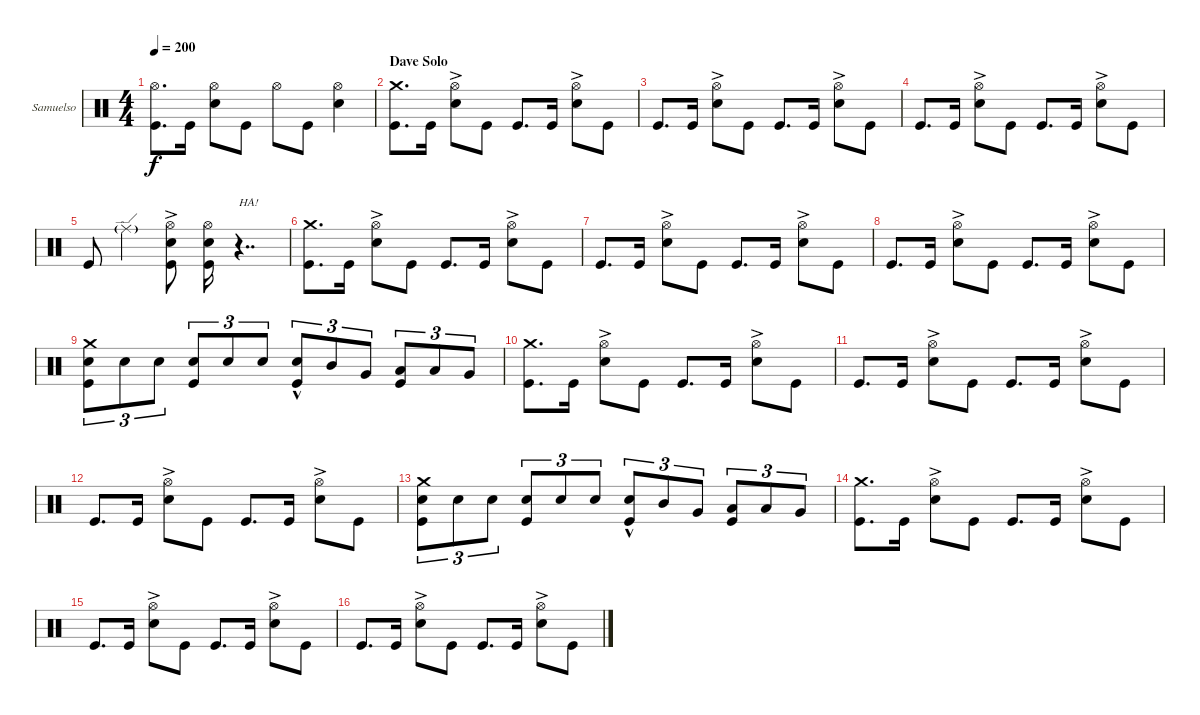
\bracketExtendMode groupsimilarinstruments
\firstSystemTrackNameOrientation horizontal
\otherSystemsTrackNameOrientation horizontal
\track ("Gar Samuelson" "Samuelso") {instrument percussion}
\staff {score}
\articulation defaults
\ts (4 4)
\tempo 200
\clef neutral
\ks c
("Hi-Hat (open)" "Kick (hit)").8{d dy f} "Kick (hit)".16 ("Snare (hit) 2" "Hi-Hat (open)").8 "Kick (hit)".8 "Hi-Hat (open)".8 "Kick (hit)".8 ("Snare (hit) 2" "Hi-Hat (open)").4 |
\section ("" "Dave Solo")
("Kick (hit)" "Crash medium (hit)").8{d} "Kick (hit)".16 ("Snare (hit) 2" "Hi-Hat (open)"{ac}).8 "Kick (hit)".8 "Kick (hit)".8{d} "Kick (hit)".16 ("Snare (hit) 2" "Hi-Hat (open)"{ac}).8 "Kick (hit)".8 |
"Kick (hit)".8{d} "Kick (hit)".16 ("Snare (hit) 2" "Hi-Hat (open)"{ac}).8 "Kick (hit)".8 "Kick (hit)".8{d} "Kick (hit)".16 ("Snare (hit) 2" "Hi-Hat (open)"{ac}).8 "Kick (hit)".8 |
"Kick (hit)".8{d} "Kick (hit)".16 ("Snare (hit) 2" "Hi-Hat (open)"{ac}).8 "Kick (hit)".8 "Kick (hit)".8{d} "Kick (hit)".16 ("Snare (hit) 2" "Hi-Hat (open)"{ac}).8 "Kick (hit)".8 |
"Kick (hit)".8 "Ride (edge)"{g}.4 ("Snare (hit) 2"{ac} "Kick (hit)"{ac} "Hi-Hat (open)"{ac}).8 ("Kick (hit)" "Snare (hit) 2" "Hi-Hat (open)").16 r.4{dd txt "HA!"} |
("Kick (hit)" "Crash medium (hit)").8{d} "Kick (hit)".16 ("Snare (hit) 2" "Hi-Hat (open)"{ac}).8 "Kick (hit)".8 "Kick (hit)".8{d} "Kick (hit)".16 ("Snare (hit) 2" "Hi-Hat (open)"{ac}).8 "Kick (hit)".8 |
"Kick (hit)".8{d} "Kick (hit)".16 ("Snare (hit) 2" "Hi-Hat (open)"{ac}).8 "Kick (hit)".8 "Kick (hit)".8{d} "Kick (hit)".16 ("Snare (hit) 2" "Hi-Hat (open)"{ac}).8 "Kick (hit)".8 |
"Kick (hit)".8{d} "Kick (hit)".16 ("Snare (hit) 2" "Hi-Hat (open)"{ac}).8 "Kick (hit)".8 "Kick (hit)".8{d} "Kick (hit)".16 ("Snare (hit) 2" "Hi-Hat (open)"{ac}).8 "Kick (hit)".8 |
("Snare (hit) 2" "Crash medium (hit)" "Kick (hit)").8{tu (3 2)} "Snare (hit) 2".8{tu (3 2)} "Snare (hit) 2".8{tu (3 2)} ("Snare (hit) 2" "Kick (hit)").8{tu (3 2)} "Snare (hit) 2".8{tu (3 2)} "Snare (hit) 2".8{tu (3 2)} ("Snare (hit) 2"{hac} "Kick (hit)").8{tu (3 2)} "Mid Tom (hit)".8{tu (3 2)} "Very Low Tom (hit)".8{tu (3 2)} ("Low Tom (hit)" "Kick (hit)").8{tu (3 2)} "Low Tom (hit)".8{tu (3 2)} "Very Low Tom (hit)".8{tu (3 2)} |
("Kick (hit)" "Crash medium (hit)").8{d} "Kick (hit)".16 ("Snare (hit) 2" "Hi-Hat (open)"{ac}).8 "Kick (hit)".8 "Kick (hit)".8{d} "Kick (hit)".16 ("Snare (hit) 2" "Hi-Hat (open)"{ac}).8 "Kick (hit)".8 |
"Kick (hit)".8{d} "Kick (hit)".16 ("Snare (hit) 2" "Hi-Hat (open)"{ac}).8 "Kick (hit)".8 "Kick (hit)".8{d} "Kick (hit)".16 ("Snare (hit) 2" "Hi-Hat (open)"{ac}).8 "Kick (hit)".8 |
"Kick (hit)".8{d} "Kick (hit)".16 ("Snare (hit) 2" "Hi-Hat (open)"{ac}).8 "Kick (hit)".8 "Kick (hit)".8{d} "Kick (hit)".16 ("Snare (hit) 2" "Hi-Hat (open)"{ac}).8 "Kick (hit)".8 |
("Snare (hit) 2" "Crash medium (hit)" "Kick (hit)").8{tu (3 2)} "Snare (hit) 2".8{tu (3 2)} "Snare (hit) 2".8{tu (3 2)} ("Snare (hit) 2" "Kick (hit)").8{tu (3 2)} "Snare (hit) 2".8{tu (3 2)} "Snare (hit) 2".8{tu (3 2)} ("Snare (hit) 2"{hac} "Kick (hit)").8{tu (3 2)} "Mid Tom (hit)".8{tu (3 2)} "Very Low Tom (hit)".8{tu (3 2)} ("Low Tom (hit)" "Kick (hit)").8{tu (3 2)} "Low Tom (hit)".8{tu (3 2)} "Very Low Tom (hit)".8{tu (3 2)} |
("Kick (hit)" "Crash medium (hit)").8{d} "Kick (hit)".16 ("Snare (hit) 2" "Hi-Hat (open)"{ac}).8 "Kick (hit)".8 "Kick (hit)".8{d} "Kick (hit)".16 ("Snare (hit) 2" "Hi-Hat (open)"{ac}).8 "Kick (hit)".8 |
"Kick (hit)".8{d} "Kick (hit)".16 ("Snare (hit) 2" "Hi-Hat (open)"{ac}).8 "Kick (hit)".8 "Kick (hit)".8{d} "Kick (hit)".16 ("Snare (hit) 2" "Hi-Hat (open)"{ac}).8 "Kick (hit)".8 |
"Kick (hit)".8{d} "Kick (hit)".16 ("Snare (hit) 2" "Hi-Hat (open)"{ac}).8 "Kick (hit)".8 "Kick (hit)".8{d} "Kick (hit)".16 ("Snare (hit) 2" "Hi-Hat (open)"{ac}).8 "Kick (hit)".8
